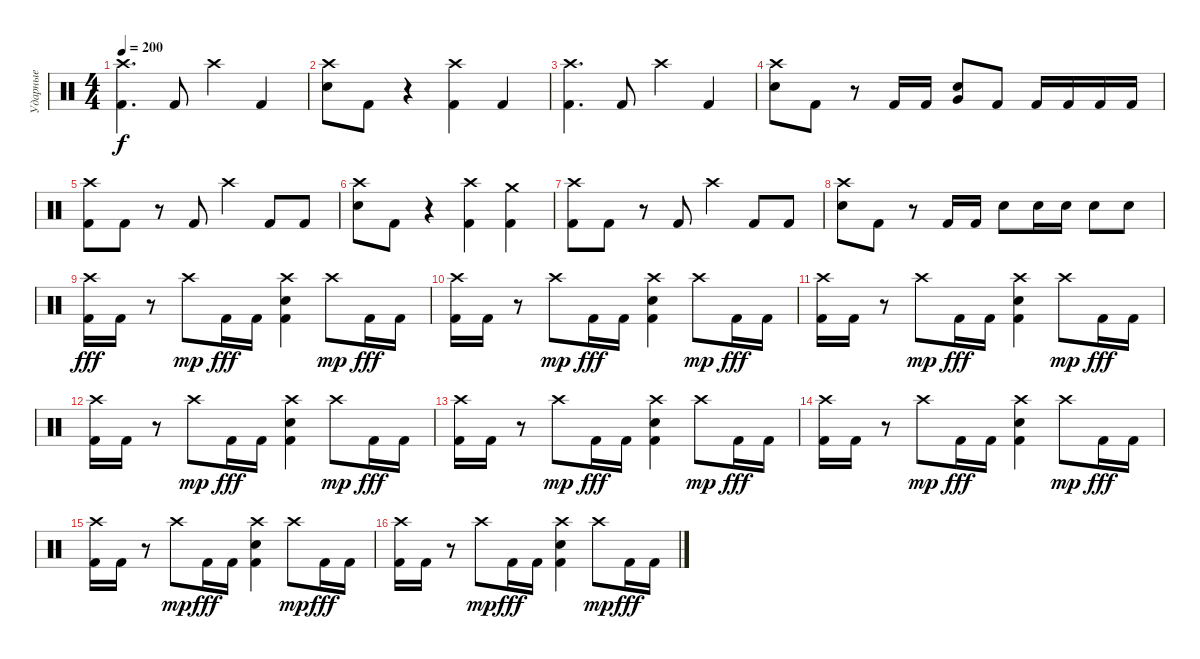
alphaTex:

\track ("Ударные" "Ударные") {instrument percussion}
\staff {score}
\articulation defaults
\ts (4 4)
\tempo 200
\clef neutral
\ks c
("Crash high (hit)" "Kick (hit) 2").4{d dy f} "Kick (hit) 2".8 "Crash high (hit)".4 "Kick (hit) 2".4 |
("Crash high (hit)" "Electric Snare (hit)").8 "Kick (hit) 2".8 r.4 ("Crash high (hit)" "Kick (hit) 2").4 "Kick (hit) 2".4 |
("Crash high (hit)" "Kick (hit) 2").4{d} "Kick (hit) 2".8 "Crash high (hit)".4 "Kick (hit) 2".4 |
("Crash high (hit)" "Electric Snare (hit)").8 "Kick (hit) 2".8 r.8 "Kick (hit) 2".16 "Kick (hit) 2".16 ("Very Low Tom (hit)" "Electric Snare (hit)").8 "Kick (hit) 2".8 "Kick (hit) 2".16 "Kick (hit) 2".16 "Kick (hit) 2".16 "Kick (hit) 2".16 |
("Crash high (hit)" "Kick (hit) 2").8 "Kick (hit) 2".8 r.8 "Kick (hit) 2".8 "Crash high (hit)".4 "Kick (hit) 2".8 "Kick (hit) 2".8 |
("Crash high (hit)" "Electric Snare (hit)").8 "Kick (hit) 2".8 r.4 ("Crash high (hit)" "Kick (hit) 2").4 ("Crash medium (hit)" "Kick (hit) 2").4 |
("Crash high (hit)" "Kick (hit) 2").8 "Kick (hit) 2".8 r.8 "Kick (hit) 2".8 "Crash high (hit)".4 "Kick (hit) 2".8 "Kick (hit) 2".8 |
("Crash high (hit)" "Electric Snare (hit)").8 "Kick (hit) 2".8 r.8 "Kick (hit) 2".16 "Kick (hit) 2".16 "Electric Snare (hit)".8 "Electric Snare (hit)".16 "Electric Snare (hit)".16 "Electric Snare (hit)".8 "Electric Snare (hit)".8 |
("Crash high (hit)" "Kick (hit) 2").16{dy fff} "Kick (hit) 2".16 r.8 "Crash high (hit)".8{dy mp} "Kick (hit) 2".16{dy fff} "Kick (hit) 2".16 ("Crash high (hit)" "Electric Snare (hit)" "Kick (hit) 2").4 "Crash high (hit)".8{dy mp} "Kick (hit) 2".16{dy fff} "Kick (hit) 2".16 |
("Crash high (hit)" "Kick (hit) 2").16 "Kick (hit) 2".16 r.8 "Crash high (hit)".8{dy mp} "Kick (hit) 2".16{dy fff} "Kick (hit) 2".16 ("Crash high (hit)" "Electric Snare (hit)" "Kick (hit) 2").4 "Crash high (hit)".8{dy mp} "Kick (hit) 2".16{dy fff} "Kick (hit) 2".16 |
("Crash high (hit)" "Kick (hit) 2").16 "Kick (hit) 2".16 r.8 "Crash high (hit)".8{dy mp} "Kick (hit) 2".16{dy fff} "Kick (hit) 2".16 ("Crash high (hit)" "Electric Snare (hit)" "Kick (hit) 2").4 "Crash high (hit)".8{dy mp} "Kick (hit) 2".16{dy fff} "Kick (hit) 2".16 |
("Crash high (hit)" "Kick (hit) 2").16 "Kick (hit) 2".16 r.8 "Crash high (hit)".8{dy mp} "Kick (hit) 2".16{dy fff} "Kick (hit) 2".16 ("Crash high (hit)" "Electric Snare (hit)" "Kick (hit) 2").4 "Crash high (hit)".8{dy mp} "Kick (hit) 2".16{dy fff} "Kick (hit) 2".16 |
("Crash high (hit)" "Kick (hit) 2").16 "Kick (hit) 2".16 r.8 "Crash high (hit)".8{dy mp} "Kick (hit) 2".16{dy fff} "Kick (hit) 2".16 ("Crash high (hit)" "Electric Snare (hit)" "Kick (hit) 2").4 "Crash high (hit)".8{dy mp} "Kick (hit) 2".16{dy fff} "Kick (hit) 2".16 |
("Crash high (hit)" "Kick (hit) 2").16 "Kick (hit) 2".16 r.8 "Crash high (hit)".8{dy mp} "Kick (hit) 2".16{dy fff} "Kick (hit) 2".16 ("Crash high (hit)" "Electric Snare (hit)" "Kick (hit) 2").4 "Crash high (hit)".8{dy mp} "Kick (hit) 2".16{dy fff} "Kick (hit) 2".16 |
("Crash high (hit)" "Kick (hit) 2").16 "Kick (hit) 2".16 r.8 "Crash high (hit)".8{dy mp} "Kick (hit) 2".16{dy fff} "Kick (hit) 2".16 ("Crash high (hit)" "Electric Snare (hit)" "Kick (hit) 2").4 "Crash high (hit)".8{dy mp} "Kick (hit) 2".16{dy fff} "Kick (hit) 2".16 |
("Crash high (hit)" "Kick (hit) 2").16 "Kick (hit) 2".16 r.8 "Crash high (hit)".8{dy mp} "Kick (hit) 2".16{dy fff} "Kick (hit) 2".16 ("Crash high (hit)" "Electric Snare (hit)" "Kick (hit) 2").4 "Crash high (hit)".8{dy mp} "Kick (hit) 2".16{dy fff} "Kick (hit) 2".16
